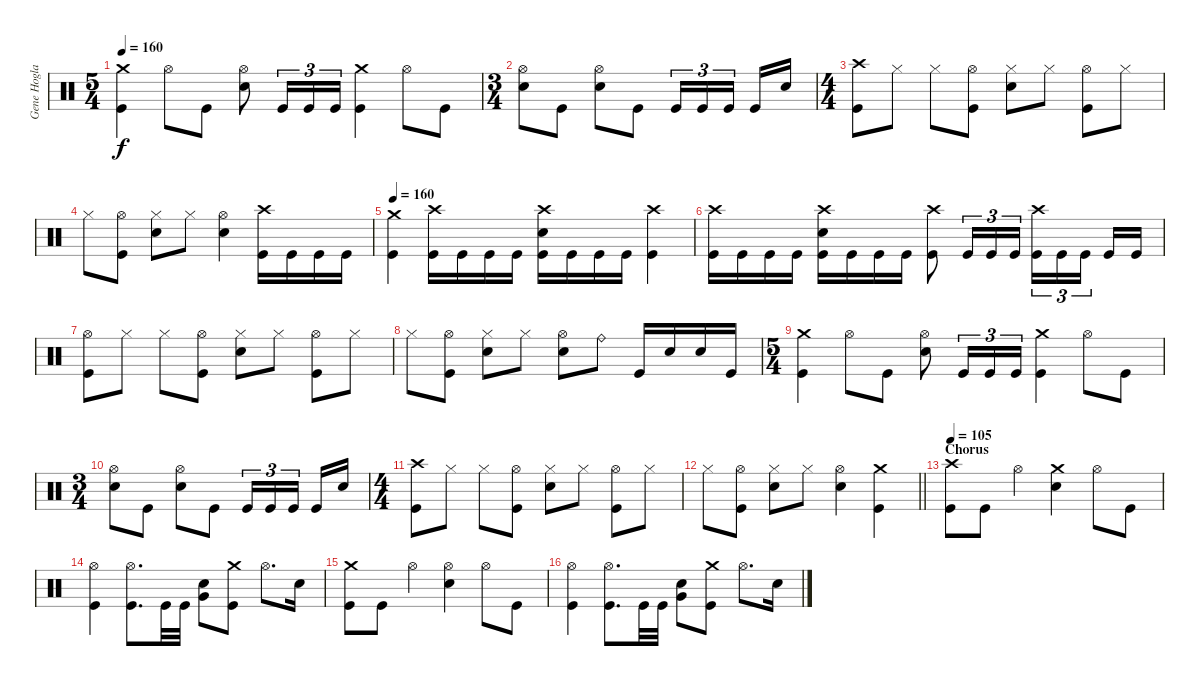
\track ("Gene Hoglan" "Gene Hogla") {instrument percussion}
\staff {score}
\articulation defaults
\ts (5 4)
\tempo 160
\clef neutral
\ks c
("Crash medium (hit)" "Kick (hit)").4{dy f} "Hi-Hat (open)".8 "Kick (hit)".8 ("Hi-Hat (open)" "Electric Snare (hit)").8 "Kick (hit)".16{tu (3 2)} "Kick (hit)".16{tu (3 2)} "Kick (hit)".16{tu (3 2)} ("Crash medium (hit)" "Kick (hit)").4 "Hi-Hat (open)".8 "Kick (hit)".8 |
\ts (3 4)
("Hi-Hat (open)" "Electric Snare (hit)").8 "Kick (hit)".8 ("Hi-Hat (open)" "Electric Snare (hit)").8 "Kick (hit)".8 "Kick (hit)".16{tu (3 2)} "Kick (hit)".16{tu (3 2)} "Kick (hit)".16{tu (3 2)} "Kick (hit)".16 "Electric Snare (hit)".16 |
\ts (4 4)
("Crash high (hit)" "Kick (hit)").8 "Hi-Hat (closed)".8 "Hi-Hat (closed)".8 ("Hi-Hat (open)" "Kick (hit)").8 ("Hi-Hat (closed)" "Electric Snare (hit)").8 "Hi-Hat (closed)".8 ("Hi-Hat (open)" "Kick (hit)").8 "Hi-Hat (closed)".8 |
"Hi-Hat (closed)".8 ("Hi-Hat (open)" "Kick (hit)").8 ("Hi-Hat (closed)" "Electric Snare (hit)").8 "Hi-Hat (closed)".8 ("Hi-Hat (open)" "Electric Snare (hit)").4 ("Crash high (hit)" "Kick (hit)").16 "Kick (hit)".16 "Kick (hit)".16 "Kick (hit)".16 |
\tempo 160
("Crash medium (hit)" "Kick (hit)").4 ("Crash high (hit)" "Kick (hit)").16 "Kick (hit)".16 "Kick (hit)".16 "Kick (hit)".16 ("Crash high (hit)" "Electric Snare (hit)" "Kick (hit)").16 "Kick (hit)".16 "Kick (hit)".16 "Kick (hit)".16 ("Crash high (hit)" "Kick (hit)").4 |
("Crash high (hit)" "Kick (hit)").16 "Kick (hit)".16 "Kick (hit)".16 "Kick (hit)".16 ("Crash high (hit)" "Electric Snare (hit)" "Kick (hit)").16 "Kick (hit)".16 "Kick (hit)".16 "Kick (hit)".16 ("Crash high (hit)" "Kick (hit)").8 "Kick (hit)".16{tu (3 2)} "Kick (hit)".16{tu (3 2)} "Kick (hit)".16{tu (3 2)} ("Crash high (hit)" "Kick (hit)").16{tu (3 2)} "Kick (hit)".16{tu (3 2)} "Kick (hit)".16{tu (3 2)} "Kick (hit)".16 "Kick (hit)".16 |
("Hi-Hat (open)" "Kick (hit)").8 "Hi-Hat (closed)".8 "Hi-Hat (closed)".8 ("Hi-Hat (open)" "Kick (hit)").8 ("Hi-Hat (closed)" "Electric Snare (hit)").8 "Hi-Hat (closed)".8 ("Hi-Hat (open)" "Kick (hit)").8 "Hi-Hat (closed)".8 |
"Hi-Hat (closed)".8 ("Hi-Hat (open)" "Kick (hit)").8 ("Hi-Hat (closed)" "Electric Snare (hit)").8 "Hi-Hat (closed)".8 ("Hi-Hat (open)" "Electric Snare (hit)").8 "Ride (bell)".8 "Kick (hit)".16 "Electric Snare (hit)".16 "Electric Snare (hit)".16 "Kick (hit)".16 |
\ts (5 4)
("Crash medium (hit)" "Kick (hit)").4 "Hi-Hat (open)".8 "Kick (hit)".8 ("Hi-Hat (open)" "Electric Snare (hit)").8 "Kick (hit)".16{tu (3 2)} "Kick (hit)".16{tu (3 2)} "Kick (hit)".16{tu (3 2)} ("Crash medium (hit)" "Kick (hit)").4 "Hi-Hat (open)".8 "Kick (hit)".8 |
\ts (3 4)
("Hi-Hat (open)" "Electric Snare (hit)").8 "Kick (hit)".8 ("Hi-Hat (open)" "Electric Snare (hit)").8 "Kick (hit)".8 "Kick (hit)".16{tu (3 2)} "Kick (hit)".16{tu (3 2)} "Kick (hit)".16{tu (3 2)} "Kick (hit)".16 "Electric Snare (hit)".16 |
\ts (4 4)
("Crash high (hit)" "Kick (hit)").8 "Hi-Hat (closed)".8 "Hi-Hat (closed)".8 ("Hi-Hat (open)" "Kick (hit)").8 ("Hi-Hat (closed)" "Electric Snare (hit)").8 "Hi-Hat (closed)".8 ("Hi-Hat (open)" "Kick (hit)").8 "Hi-Hat (closed)".8 |
\barLineRight lightlight "Hi-Hat (closed)".8
("Hi-Hat (open)" "Kick (hit)").8 ("Hi-Hat (closed)" "Electric Snare (hit)").8 "Hi-Hat (closed)".8 ("Hi-Hat (open)" "Electric Snare (hit)").4 ("Crash medium (hit)" "Kick (hit)").4 |
\section ("" "Chorus")
\tempo 105
("Crash high (hit)" "Kick (hit)").8 "Kick (hit)".8 "Hi-Hat (open)".4 ("Crash medium (hit)" "Electric Snare (hit)").4 "Hi-Hat (open)".8 "Kick (hit)".8 |
("Hi-Hat (open)" "Kick (hit)").4 ("Hi-Hat (open)" "Kick (hit)").8{d} "Kick (hit)".32 "Kick (hit)".32 ("Very Low Tom (hit)" "Electric Snare (hit)").8 ("Crash medium (hit)" "Kick (hit)").8 "Hi-Hat (open)".8{d} "Electric Snare (hit)".16 |
("Crash medium (hit)" "Kick (hit)").8 "Kick (hit)".8 "Hi-Hat (open)".4 ("Hi-Hat (open)" "Electric Snare (hit)").4 "Hi-Hat (open)".8 "Kick (hit)".8 |
("Hi-Hat (open)" "Kick (hit)").4 ("Hi-Hat (open)" "Kick (hit)").8{d} "Kick (hit)".32 "Kick (hit)".32 ("Very Low Tom (hit)" "Electric Snare (hit)").8 ("Crash medium (hit)" "Kick (hit)").8 "Hi-Hat (open)".8{d} "Electric Snare (hit)".16
